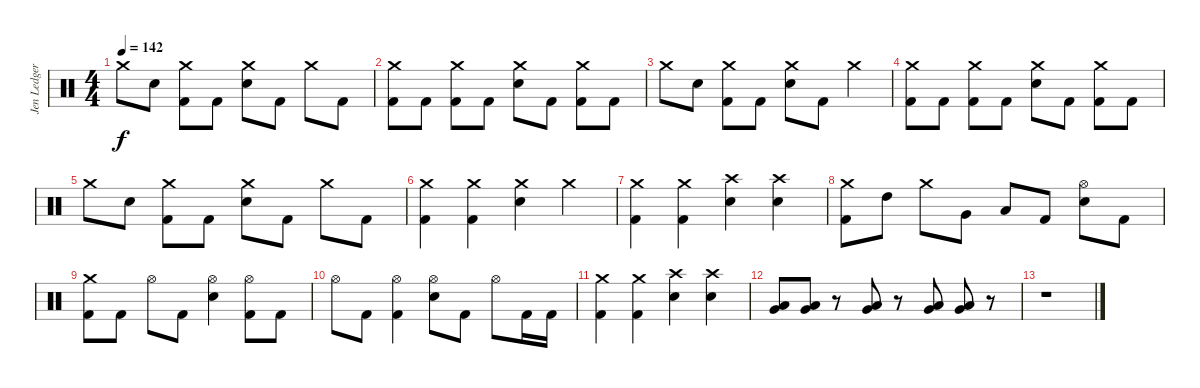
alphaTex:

\track ("Jen Ledger" "Jen Ledger") {instrument percussion}
\staff {score}
\articulation defaults
\ts (4 4)
\tempo 142
\clef neutral
\ks c "Crash medium (hit)".8{dy f} "Electric Snare (hit)".8
("Crash medium (hit)" "Kick (hit) 2").8 "Kick (hit) 2".8 ("Crash medium (hit)" "Electric Snare (hit)").8 "Kick (hit) 2".8 "Crash medium (hit)".8 "Kick (hit) 2".8 |
("Crash medium (hit)" "Kick (hit) 2").8 "Kick (hit) 2".8 ("Crash medium (hit)" "Kick (hit) 2").8 "Kick (hit) 2".8 ("Crash medium (hit)" "Electric Snare (hit)").8 "Kick (hit) 2".8 ("Crash medium (hit)" "Kick (hit) 2").8 "Kick (hit) 2".8 |
"Crash medium (hit)".8 "Electric Snare (hit)".8 ("Crash medium (hit)" "Kick (hit) 2").8 "Kick (hit) 2".8 ("Crash medium (hit)" "Electric Snare (hit)").8 "Kick (hit) 2".8 "Crash medium (hit)".4 |
("Crash medium (hit)" "Kick (hit) 2").8 "Kick (hit) 2".8 ("Crash medium (hit)" "Kick (hit) 2").8 "Kick (hit) 2".8 ("Crash medium (hit)" "Electric Snare (hit)").8 "Kick (hit) 2".8 ("Crash medium (hit)" "Kick (hit) 2").8 "Kick (hit) 2".8 |
"Crash medium (hit)".8 "Electric Snare (hit)".8 ("Crash medium (hit)" "Kick (hit) 2").8 "Kick (hit) 2".8 ("Crash medium (hit)" "Electric Snare (hit)").8 "Kick (hit) 2".8 "Crash medium (hit)".8 "Kick (hit) 2".8 |
("Crash medium (hit)" "Kick (hit) 2").4 ("Crash medium (hit)" "Kick (hit) 2").4 ("Crash medium (hit)" "Electric Snare (hit)").4 "Crash medium (hit)".4 |
("Crash medium (hit)" "Kick (hit) 2").4 ("Crash medium (hit)" "Kick (hit) 2").4 ("Crash high (hit)" "Electric Snare (hit)").4 ("Crash high (hit)" "Electric Snare (hit)").4 |
("Crash medium (hit)" "Kick (hit) 2").8 "High Tom (hit)".8 "Crash medium (hit)".8 "Very Low Tom (hit)".8 "Low Floor Tom (hit)".8 "Kick (hit) 2".8 ("Hi-Hat (open)" "Electric Snare (hit)").8 "Kick (hit) 2".8 |
("Crash medium (hit)" "Kick (hit) 2").8 "Kick (hit) 2".8 "Hi-Hat (open)".8 "Kick (hit) 2".8 ("Hi-Hat (open)" "Electric Snare (hit)").4 ("Hi-Hat (open)" "Kick (hit) 2").8 "Kick (hit) 2".8 |
"Hi-Hat (open)".8 "Kick (hit) 2".8 ("Hi-Hat (open)" "Kick (hit) 2").4 ("Hi-Hat (open)" "Electric Snare (hit)").8 "Kick (hit) 2".8 "Hi-Hat (open)".8 "Kick (hit) 2".16 "Kick (hit) 2".16 |
("Crash medium (hit)" "Kick (hit) 2").4 ("Crash medium (hit)" "Kick (hit) 2").4 ("Crash high (hit)" "Electric Snare (hit)").4 ("Crash high (hit)" "Electric Snare (hit)").4 |
("Very Low Tom (hit)" "Low Floor Tom (hit)").8 ("Very Low Tom (hit)" "Low Floor Tom (hit)").8 r.8 ("Very Low Tom (hit)" "Low Floor Tom (hit)").8 r.8 ("Very Low Tom (hit)" "Low Floor Tom (hit)").8 ("Very Low Tom (hit)" "Low Floor Tom (hit)").8 r.8 |
r.1
